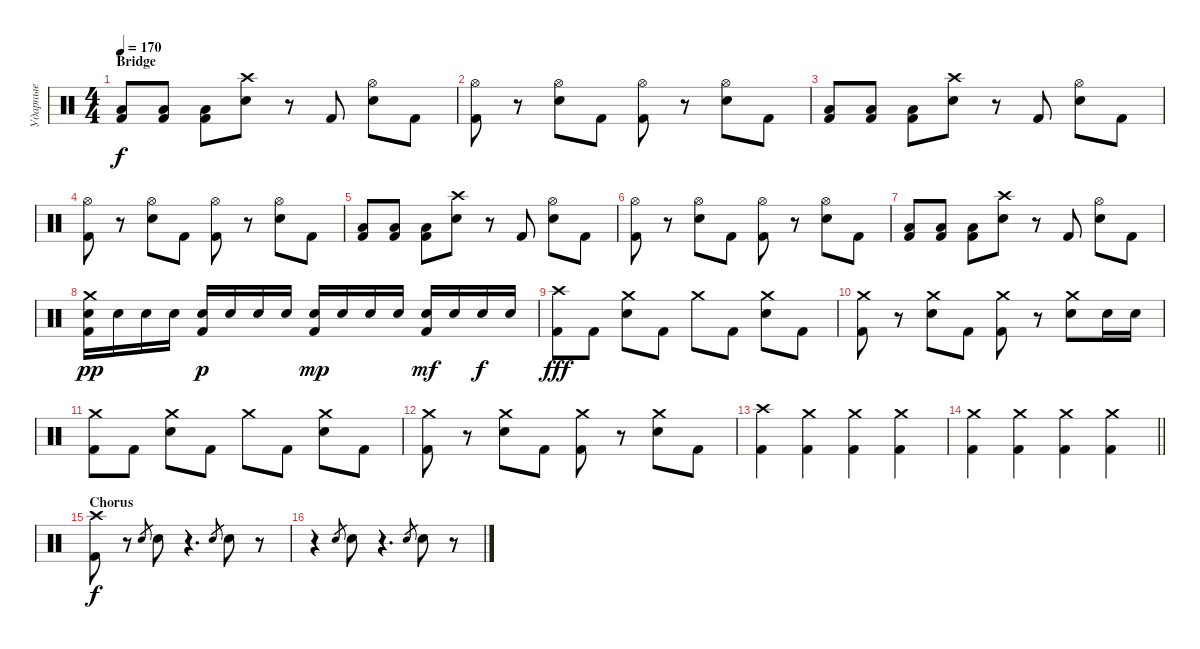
\track ("Ударные" "Ударные") {instrument percussion}
\staff {score}
\articulation defaults
\ts (4 4)
\section ("" "Bridge")
\tempo 170
\clef neutral
\ks c
("Low Tom (hit)" "Kick (hit) 2").8{dy f} ("Low Tom (hit)" "Kick (hit) 2").8 ("Low Tom (hit)" "Kick (hit) 2").8 ("Crash high (hit)" "Electric Snare (hit)").8 r.8 "Kick (hit) 2".8 ("Hi-Hat (open)" "Electric Snare (hit)").8 "Kick (hit) 2".8 |
("Hi-Hat (open)" "Kick (hit) 2").8 r.8 ("Hi-Hat (open)" "Electric Snare (hit)").8 "Kick (hit) 2".8 ("Hi-Hat (open)" "Kick (hit) 2").8 r.8 ("Hi-Hat (open)" "Electric Snare (hit)").8 "Kick (hit) 2".8 |
("Low Tom (hit)" "Kick (hit) 2").8 ("Low Tom (hit)" "Kick (hit) 2").8 ("Low Tom (hit)" "Kick (hit) 2").8 ("Crash high (hit)" "Electric Snare (hit)").8 r.8 "Kick (hit) 2".8 ("Hi-Hat (open)" "Electric Snare (hit)").8 "Kick (hit) 2".8 |
("Hi-Hat (open)" "Kick (hit) 2").8 r.8 ("Hi-Hat (open)" "Electric Snare (hit)").8 "Kick (hit) 2".8 ("Hi-Hat (open)" "Kick (hit) 2").8 r.8 ("Hi-Hat (open)" "Electric Snare (hit)").8 "Kick (hit) 2".8 |
("Low Tom (hit)" "Kick (hit) 2").8 ("Low Tom (hit)" "Kick (hit) 2").8 ("Low Tom (hit)" "Kick (hit) 2").8 ("Crash high (hit)" "Electric Snare (hit)").8 r.8 "Kick (hit) 2".8 ("Hi-Hat (open)" "Electric Snare (hit)").8 "Kick (hit) 2".8 |
("Hi-Hat (open)" "Kick (hit) 2").8 r.8 ("Hi-Hat (open)" "Electric Snare (hit)").8 "Kick (hit) 2".8 ("Hi-Hat (open)" "Kick (hit) 2").8 r.8 ("Hi-Hat (open)" "Electric Snare (hit)").8 "Kick (hit) 2".8 |
("Low Tom (hit)" "Kick (hit) 2").8 ("Low Tom (hit)" "Kick (hit) 2").8 ("Low Tom (hit)" "Kick (hit) 2").8 ("Crash high (hit)" "Electric Snare (hit)").8 r.8 "Kick (hit) 2".8 ("Hi-Hat (open)" "Electric Snare (hit)").8 "Kick (hit) 2".8 |
("Crash medium (hit)" "Electric Snare (hit)" "Kick (hit) 2").16{dy pp} "Electric Snare (hit)".16 "Electric Snare (hit)".16 "Electric Snare (hit)".16 ("Electric Snare (hit)" "Kick (hit) 2").16{dy p} "Electric Snare (hit)".16 "Electric Snare (hit)".16 "Electric Snare (hit)".16 ("Electric Snare (hit)" "Kick (hit) 2").16{dy mp} "Electric Snare (hit)".16 "Electric Snare (hit)".16 "Electric Snare (hit)".16 ("Electric Snare (hit)" "Kick (hit) 2").16{dy mf} "Electric Snare (hit)".16 "Electric Snare (hit)".16{dy f} "Electric Snare (hit)".16 |
("Crash high (hit)" "Kick (hit) 2").8{dy fff} "Kick (hit) 2".8 ("Crash medium (hit)" "Electric Snare (hit)").8 "Kick (hit) 2".8 "Crash medium (hit)".8 "Kick (hit) 2".8 ("Crash medium (hit)" "Electric Snare (hit)").8 "Kick (hit) 2".8 |
("Crash medium (hit)" "Kick (hit) 2").8 r.8 ("Crash medium (hit)" "Electric Snare (hit)").8 "Kick (hit) 2".8 ("Crash medium (hit)" "Kick (hit) 2").8 r.8 ("Crash medium (hit)" "Electric Snare (hit)").8 "Electric Snare (hit)".16 "Electric Snare (hit)".16 |
("Crash medium (hit)" "Kick (hit) 2").8 "Kick (hit) 2".8 ("Crash medium (hit)" "Electric Snare (hit)").8 "Kick (hit) 2".8 "Crash medium (hit)".8 "Kick (hit) 2".8 ("Crash medium (hit)" "Electric Snare (hit)").8 "Kick (hit) 2".8 |
("Crash medium (hit)" "Kick (hit) 2").8 r.8 ("Crash medium (hit)" "Electric Snare (hit)").8 "Kick (hit) 2".8 ("Crash medium (hit)" "Kick (hit) 2").8 r.8 ("Crash medium (hit)" "Electric Snare (hit)").8 "Kick (hit) 2".8 |
("Crash high (hit)" "Kick (hit) 2").4 ("Crash medium (hit)" "Kick (hit) 2").4 ("Crash medium (hit)" "Kick (hit) 2").4 ("Crash medium (hit)" "Kick (hit) 2").4 |
\barLineRight lightlight
("Crash medium (hit)" "Kick (hit) 2").4 ("Crash medium (hit)" "Kick (hit) 2").4 ("Crash medium (hit)" "Kick (hit) 2").4 ("Crash medium (hit)" "Kick (hit) 2").4 |
\section ("" "Chorus")
("Crash high (hit)" "Kick (hit) 2").8{dy f} r.8 "Electric Snare (hit)".8{gr} "Electric Snare (hit)".8 r.4{d} "Electric Snare (hit)".8{gr} "Electric Snare (hit)".8 r.8 |
r.4 "Electric Snare (hit)".8{gr} "Electric Snare (hit)".8 r.4{d} "Electric Snare (hit)".8{gr} "Electric Snare (hit)".8 r.8
